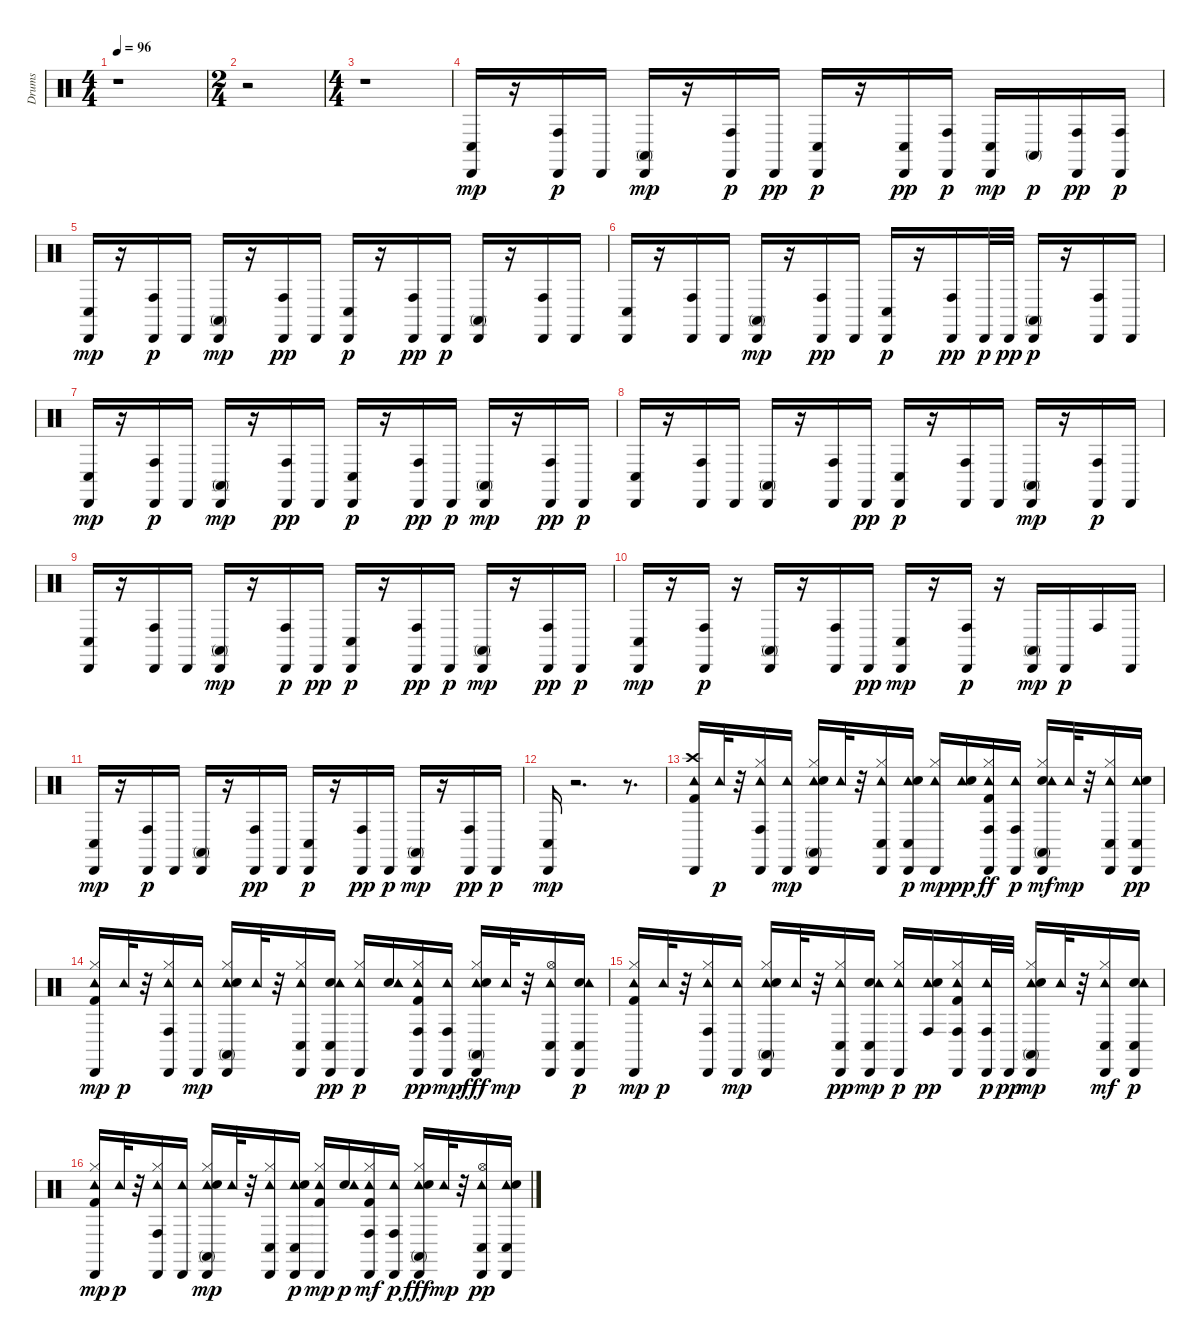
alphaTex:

\track ("Drums" "Drums") {instrument percussion}
\staff {score}
\articulation defaults
\ts (4 4)
\tempo 96
\clef neutral
\ks c
r.1{dy mp} |
\ts (2 4)
r.2 |
\ts (4 4)
r.1 |
("Conga low (hit)" "Cabasa (hit)").16 r.16 ("Cabasa (hit)" "Conga high (hit)").16{dy p} "Cabasa (hit)".16 ("Conga high (mute)" "Cabasa (hit)").16{dy mp} r.16 ("Cabasa (hit)" "Conga high (hit)").16{dy p} "Cabasa (hit)".16{dy pp} ("Cabasa (hit)" "Conga low (hit)").16{dy p} r.16 ("Conga low (hit)" "Cabasa (hit)").16{dy pp} ("Conga high (hit)" "Cabasa (hit)").16{dy p} ("Conga low (hit)" "Cabasa (hit)").16{dy mp} "Conga high (mute)".16{dy p} ("Conga high (hit)" "Cabasa (hit)").16{dy pp} ("Cabasa (hit)" "Conga high (hit)").16{dy p} |
("Conga low (hit)" "Cabasa (hit)").16{dy mp} r.16 ("Cabasa (hit)" "Conga high (hit)").16{dy p} "Cabasa (hit)".16 ("Conga high (mute)" "Cabasa (hit)").16{dy mp} r.16 ("Conga high (hit)" "Cabasa (hit)").16{dy pp} "Cabasa (hit)".16 ("Conga low (hit)" "Cabasa (hit)").16{dy p} r.16 ("Conga high (hit)" "Cabasa (hit)").16{dy pp} "Cabasa (hit)".16{dy p} ("Cabasa (hit)" "Conga high (mute)").16 r.16 ("Cabasa (hit)" "Conga high (hit)").16 "Cabasa (hit)".16 |
("Cabasa (hit)" "Conga low (hit)").16 r.16 ("Conga high (hit)" "Cabasa (hit)").16 "Cabasa (hit)".16 ("Conga high (mute)" "Cabasa (hit)").16{dy mp} r.16 ("Conga high (hit)" "Cabasa (hit)").16{dy pp} "Cabasa (hit)".16 ("Cabasa (hit)" "Conga low (hit)").16{dy p} r.16 ("Conga high (hit)" "Cabasa (hit)").16{dy pp} "Cabasa (hit)".32{dy p} "Cabasa (hit)".32{dy pp} ("Cabasa (hit)" "Conga high (mute)").16{dy p} r.16 ("Cabasa (hit)" "Conga high (hit)").16 "Cabasa (hit)".16 |
("Conga low (hit)" "Cabasa (hit)").16{dy mp} r.16 ("Conga high (hit)" "Cabasa (hit)").16{dy p} "Cabasa (hit)".16 ("Conga high (mute)" "Cabasa (hit)").16{dy mp} r.16 ("Conga high (hit)" "Cabasa (hit)").16{dy pp} "Cabasa (hit)".16 ("Cabasa (hit)" "Conga low (hit)").16{dy p} r.16 ("Conga high (hit)" "Cabasa (hit)").16{dy pp} "Cabasa (hit)".16{dy p} ("Conga high (mute)" "Cabasa (hit)").16{dy mp} r.16 ("Conga high (hit)" "Cabasa (hit)").16{dy pp} "Cabasa (hit)".16{dy p} |
("Cabasa (hit)" "Conga low (hit)").16 r.16 ("Conga high (hit)" "Cabasa (hit)").16 "Cabasa (hit)".16 ("Cabasa (hit)" "Conga high (mute)").16 r.16 ("Cabasa (hit)" "Conga high (hit)").16 "Cabasa (hit)".16{dy pp} ("Cabasa (hit)" "Conga low (hit)").16{dy p} r.16 ("Cabasa (hit)" "Conga high (hit)").16 "Cabasa (hit)".16 ("Conga high (mute)" "Cabasa (hit)").16{dy mp} r.16 ("Cabasa (hit)" "Conga high (hit)").16{dy p} "Cabasa (hit)".16 |
("Cabasa (hit)" "Conga low (hit)").16 r.16 ("Cabasa (hit)" "Conga high (hit)").16 "Cabasa (hit)".16 ("Conga high (mute)" "Cabasa (hit)").16{dy mp} r.16 ("Cabasa (hit)" "Conga high (hit)").16{dy p} "Cabasa (hit)".16{dy pp} ("Cabasa (hit)" "Conga low (hit)").16{dy p} r.16 ("Conga high (hit)" "Cabasa (hit)").16{dy pp} "Cabasa (hit)".16{dy p} ("Conga high (mute)" "Cabasa (hit)").16{dy mp} r.16 ("Conga high (hit)" "Cabasa (hit)").16{dy pp} "Cabasa (hit)".16{dy p} |
("Conga low (hit)" "Cabasa (hit)").16{dy mp} r.16 ("Conga high (hit)" "Cabasa (hit)").16{dy p} r.16 ("Cabasa (hit)" "Conga high (mute)").16 r.16 ("Cabasa (hit)" "Conga high (hit)").16 "Cabasa (hit)".16{dy pp} ("Conga low (hit)" "Cabasa (hit)").16{dy mp} r.16 ("Cabasa (hit)" "Conga high (hit)").16{dy p} r.16 ("Conga high (mute)" "Cabasa (hit)").16{dy mp} "Cabasa (hit)".16{dy p} "Conga high (hit)".16 "Cabasa (hit)".16 |
("Conga low (hit)" "Cabasa (hit)").16{dy mp} r.16 ("Cabasa (hit)" "Conga high (hit)").16{dy p} "Cabasa (hit)".16 ("Cabasa (hit)" "Conga high (mute)").16 r.16 ("Conga high (hit)" "Cabasa (hit)").16{dy pp} "Cabasa (hit)".16 ("Conga low (hit)" "Cabasa (hit)").16{dy p} r.16 ("Conga high (hit)" "Cabasa (hit)").16{dy pp} "Cabasa (hit)".16{dy p} ("Conga high (mute)" "Cabasa (hit)").16{dy mp} r.16 ("Conga high (hit)" "Cabasa (hit)").16{dy pp} "Cabasa (hit)".16{dy p} |
("Cabasa (hit)" "Conga low (hit)").16{dy mp} r.2{d} r.8{d} |
("Kick (hit) 2" "Cabasa (hit)" "Tambourine (hit)" "Crash high (hit)").16 "Tambourine (hit)".32{dy p} r.32 ("Conga high (hit)" "Tambourine (hit)" "Hi-Hat (closed)" "Cabasa (hit)").16 ("Cabasa (hit)" "Tambourine (hit)").16{dy mp} ("Hi-Hat (closed)" "Tambourine (hit)" "Snare (hit) 2" "Cabasa (hit)" "Conga high (mute)").16 "Tambourine (hit)".32 r.32 ("Cabasa (hit)" "Tambourine (hit)" "Hi-Hat (closed)" "Conga low (hit)").16 ("Cabasa (hit)" "Tambourine (hit)" "Electric Snare (hit)" "Conga low (hit)").16{dy p} ("Cabasa (hit)" "Tambourine (hit)" "Hi-Hat (closed)").16{dy mp} ("Tambourine (hit)" "Electric Snare (hit)").16{dy pp} ("Cabasa (hit)" "Tambourine (hit)" "Hi-Hat (closed)" "Conga high (hit)" "Kick (hit) 2").16{dy ff} ("Conga high (hit)" "Tambourine (hit)" "Cabasa (hit)").16{dy p} ("Hi-Hat (closed)" "Conga high (mute)" "Cabasa (hit)" "Snare (hit) 2" "Tambourine (hit)").16{dy mf} "Tambourine (hit)".32{dy mp} r.32 ("Conga low (hit)" "Cabasa (hit)" "Hi-Hat (closed)" "Tambourine (hit)").16 ("Cabasa (hit)" "Conga low (hit)" "Tambourine (hit)" "Electric Snare (hit)").16{dy pp} |
("Hi-Hat (closed)" "Kick (hit) 2" "Tambourine (hit)" "Cabasa (hit)").16{dy mp} "Tambourine (hit)".32{dy p} r.32 ("Cabasa (hit)" "Hi-Hat (closed)" "Tambourine (hit)" "Conga high (hit)").16 ("Cabasa (hit)" "Tambourine (hit)").16{dy mp} ("Tambourine (hit)" "Snare (hit) 2" "Hi-Hat (closed)" "Conga high (mute)" "Cabasa (hit)").16 "Tambourine (hit)".32 r.32 ("Cabasa (hit)" "Hi-Hat (closed)" "Tambourine (hit)" "Conga low (hit)").16 ("Electric Snare (hit)" "Tambourine (hit)" "Conga low (hit)" "Cabasa (hit)").16{dy pp} ("Hi-Hat (closed)" "Tambourine (hit)" "Cabasa (hit)").16{dy p} ("Electric Snare (hit)" "Tambourine (hit)").16 ("Tambourine (hit)" "Conga high (hit)" "Kick (hit) 2" "Hi-Hat (closed)" "Cabasa (hit)").16{dy pp} ("Cabasa (hit)" "Tambourine (hit)" "Conga high (hit)").16{dy mp} ("Cabasa (hit)" "Tambourine (hit)" "Conga high (mute)" "Snare (hit) 2" "Hi-Hat (closed)").16{dy fff} "Tambourine (hit)".32{dy mp} r.32 ("Cabasa (hit)" "Tambourine (hit)" "Hi-Hat (open)" "Conga low (hit)").16 ("Electric Snare (hit)" "Tambourine (hit)" "Conga low (hit)" "Cabasa (hit)").16{dy p} |
("Cabasa (hit)" "Kick (hit) 2" "Tambourine (hit)" "Hi-Hat (closed)").16{dy mp} "Tambourine (hit)".32{dy p} r.32 ("Tambourine (hit)" "Hi-Hat (closed)" "Conga high (hit)" "Cabasa (hit)").16 ("Cabasa (hit)" "Tambourine (hit)").16{dy mp} ("Conga high (mute)" "Hi-Hat (closed)" "Tambourine (hit)" "Snare (hit) 2" "Cabasa (hit)").16 "Tambourine (hit)".32 r.32 ("Tambourine (hit)" "Hi-Hat (closed)" "Conga low (hit)" "Cabasa (hit)").16{dy pp} ("Conga low (hit)" "Electric Snare (hit)" "Cabasa (hit)" "Tambourine (hit)").16{dy mp} ("Hi-Hat (closed)" "Tambourine (hit)" "Cabasa (hit)").16{dy p} ("Tambourine (hit)" "Conga high (hit)" "Electric Snare (hit)").16{dy pp} ("Conga high (hit)" "Hi-Hat (closed)" "Kick (hit) 2" "Tambourine (hit)" "Cabasa (hit)").16 ("Tambourine (hit)" "Conga high (hit)" "Cabasa (hit)").32{dy p} "Cabasa (hit)".32{dy pp} ("Cabasa (hit)" "Tambourine (hit)" "Snare (hit) 2" "Hi-Hat (closed)" "Conga high (mute)").16{dy mp} "Tambourine (hit)".32 r.32 ("Cabasa (hit)" "Tambourine (hit)" "Conga low (hit)" "Hi-Hat (closed)").16{dy mf} ("Electric Snare (hit)" "Tambourine (hit)" "Cabasa (hit)" "Conga low (hit)").16{dy p} |
("Hi-Hat (closed)" "Kick (hit) 2" "Tambourine (hit)" "Cabasa (hit)").16{dy mp} "Tambourine (hit)".32{dy p} r.32 ("Cabasa (hit)" "Tambourine (hit)" "Hi-Hat (closed)" "Conga high (hit)").16 ("Tambourine (hit)" "Cabasa (hit)").16 ("Tambourine (hit)" "Snare (hit) 2" "Hi-Hat (closed)" "Conga high (mute)" "Cabasa (hit)").16{dy mp} "Tambourine (hit)".32 r.32 ("Cabasa (hit)" "Hi-Hat (closed)" "Tambourine (hit)" "Conga low (hit)").16 ("Cabasa (hit)" "Tambourine (hit)" "Electric Snare (hit)" "Conga low (hit)").16{dy p} ("Cabasa (hit)" "Hi-Hat (closed)" "Kick (hit) 2" "Tambourine (hit)").16{dy mp} ("Electric Snare (hit)" "Tambourine (hit)").16{dy p} ("Conga high (hit)" "Tambourine (hit)" "Kick (hit) 2" "Cabasa (hit)" "Hi-Hat (closed)").16{dy mf} ("Tambourine (hit)" "Conga high (hit)" "Cabasa (hit)").16{dy p} ("Cabasa (hit)" "Tambourine (hit)" "Hi-Hat (closed)" "Conga high (mute)" "Snare (hit) 2").16{dy fff} "Tambourine (hit)".32{dy mp} r.32 ("Conga low (hit)" "Tambourine (hit)" "Hi-Hat (open)" "Cabasa (hit)").16{dy pp} ("Tambourine (hit)" "Cabasa (hit)" "Conga low (hit)" "Electric Snare (hit)").16
